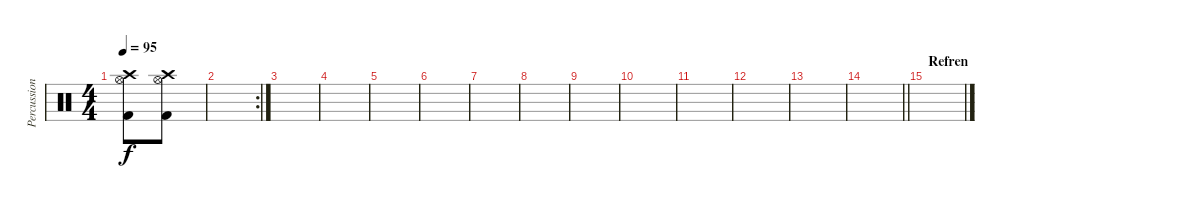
\track ("Percussion" "Percussion") {instrument percussion}
\staff {score}
\articulation defaults
\ts (4 4)
\tempo 95
\clef neutral
\ks c
("Crash high (hit)" "Hi-Hat (open)" "Kick (hit) 2").8{dy f} ("Crash high (hit)" "Hi-Hat (open)" "Kick (hit) 2").8 |
\rc 2
|
|
|
|
|
|
|
|
|
|
|
|
\barLineRight lightlight
|
\section ("" "Refren")
